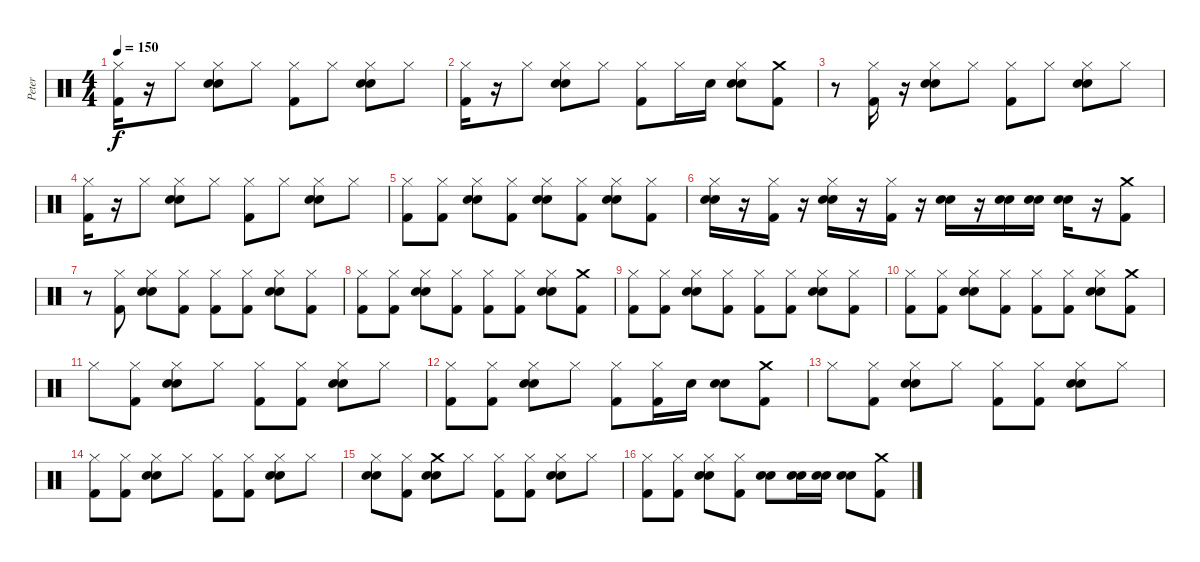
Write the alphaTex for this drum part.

\track ("Peter" "Peter") {instrument percussion}
\staff {score}
\articulation defaults
\ts (4 4)
\tempo 150
\clef neutral
\ks c
("Hi-Hat (closed)" "Kick (hit) 2").16{dy f} r.16 "Hi-Hat (closed)".8 ("Electric Snare (hit)" "Hi-Hat (closed)" "Snare (hit) 2").8 "Hi-Hat (closed)".8 ("Hi-Hat (closed)" "Kick (hit) 2").8 "Hi-Hat (closed)".8 ("Hi-Hat (closed)" "Electric Snare (hit)" "Snare (hit) 2").8 "Hi-Hat (closed)".8 |
("Kick (hit) 2" "Hi-Hat (closed)").16 r.16 "Hi-Hat (closed)".8 ("Electric Snare (hit)" "Hi-Hat (closed)" "Snare (hit) 2").8 "Hi-Hat (closed)".8 ("Hi-Hat (closed)" "Kick (hit) 2").8 "Hi-Hat (closed)".16 "Snare (hit) 2".16 ("Hi-Hat (closed)" "Electric Snare (hit)" "Snare (hit) 2").8 ("Kick (hit) 2" "Crash medium (hit)").8 |
r.8 ("Hi-Hat (closed)" "Kick (hit) 2").16 r.16 ("Hi-Hat (closed)" "Electric Snare (hit)" "Snare (hit) 2").8 "Hi-Hat (closed)".8 ("Hi-Hat (closed)" "Kick (hit) 2").8 "Hi-Hat (closed)".8 ("Hi-Hat (closed)" "Electric Snare (hit)" "Snare (hit) 2").8 "Hi-Hat (closed)".8 |
("Hi-Hat (closed)" "Kick (hit) 2").16 r.16 "Hi-Hat (closed)".8 ("Electric Snare (hit)" "Snare (hit) 2" "Hi-Hat (closed)").8 "Hi-Hat (closed)".8 ("Kick (hit) 2" "Hi-Hat (closed)").8 "Hi-Hat (closed)".8 ("Electric Snare (hit)" "Snare (hit) 2" "Hi-Hat (closed)").8 "Hi-Hat (closed)".8 |
("Hi-Hat (closed)" "Kick (hit) 2").8 ("Hi-Hat (closed)" "Kick (hit) 2").8 ("Hi-Hat (closed)" "Electric Snare (hit)" "Snare (hit) 2").8 ("Hi-Hat (closed)" "Kick (hit) 2").8 ("Hi-Hat (closed)" "Electric Snare (hit)" "Snare (hit) 2").8 ("Hi-Hat (closed)" "Kick (hit) 2").8 ("Hi-Hat (closed)" "Electric Snare (hit)" "Snare (hit) 2").8 ("Hi-Hat (closed)" "Kick (hit) 2").8 |
("Hi-Hat (closed)" "Snare (hit) 2" "Electric Snare (hit)").16 r.16 ("Hi-Hat (closed)" "Kick (hit) 2").16 r.16 ("Hi-Hat (closed)" "Snare (hit) 2" "Electric Snare (hit)").16 r.16 ("Hi-Hat (closed)" "Kick (hit) 2").16 r.16 ("Snare (hit) 2" "Electric Snare (hit)").16 r.16 ("Snare (hit) 2" "Electric Snare (hit)").16 ("Snare (hit) 2" "Electric Snare (hit)").16 ("Snare (hit) 2" "Electric Snare (hit)").16 r.16 ("Crash medium (hit)" "Kick (hit) 2").8 |
r.8 ("Hi-Hat (closed)" "Kick (hit) 2").8 ("Hi-Hat (closed)" "Electric Snare (hit)" "Snare (hit) 2").8 ("Hi-Hat (closed)" "Kick (hit) 2").8 ("Hi-Hat (closed)" "Kick (hit) 2").8 ("Hi-Hat (closed)" "Kick (hit) 2").8 ("Hi-Hat (closed)" "Electric Snare (hit)" "Snare (hit) 2").8 ("Hi-Hat (closed)" "Kick (hit) 2").8 |
("Hi-Hat (closed)" "Kick (hit) 2").8 ("Hi-Hat (closed)" "Kick (hit) 2").8 ("Hi-Hat (closed)" "Electric Snare (hit)" "Snare (hit) 2").8 ("Hi-Hat (closed)" "Kick (hit) 2").8 ("Hi-Hat (closed)" "Kick (hit) 2").8 ("Hi-Hat (closed)" "Kick (hit) 2").8 ("Hi-Hat (closed)" "Snare (hit) 2" "Electric Snare (hit)").8 ("Crash medium (hit)" "Kick (hit) 2").8 |
("Hi-Hat (closed)" "Kick (hit) 2").8 ("Hi-Hat (closed)" "Kick (hit) 2").8 ("Hi-Hat (closed)" "Electric Snare (hit)" "Snare (hit) 2").8 ("Hi-Hat (closed)" "Kick (hit) 2").8 ("Hi-Hat (closed)" "Kick (hit) 2").8 ("Hi-Hat (closed)" "Kick (hit) 2").8 ("Snare (hit) 2" "Hi-Hat (closed)" "Electric Snare (hit)").8 ("Hi-Hat (closed)" "Kick (hit) 2").8 |
("Hi-Hat (closed)" "Kick (hit) 2").8 ("Hi-Hat (closed)" "Kick (hit) 2").8 ("Hi-Hat (closed)" "Electric Snare (hit)" "Snare (hit) 2").8 ("Hi-Hat (closed)" "Kick (hit) 2").8 ("Hi-Hat (closed)" "Kick (hit) 2").8 ("Hi-Hat (closed)" "Kick (hit) 2").8 ("Hi-Hat (closed)" "Electric Snare (hit)" "Snare (hit) 2").8 ("Crash medium (hit)" "Kick (hit) 2").8 |
"Hi-Hat (closed)".8 ("Hi-Hat (closed)" "Kick (hit) 2").8 ("Hi-Hat (closed)" "Snare (hit) 2" "Electric Snare (hit)").8 "Hi-Hat (closed)".8 ("Hi-Hat (closed)" "Kick (hit) 2").8 ("Hi-Hat (closed)" "Kick (hit) 2").8 ("Hi-Hat (closed)" "Snare (hit) 2" "Electric Snare (hit)").8 "Hi-Hat (closed)".8 |
("Hi-Hat (closed)" "Kick (hit) 2").8 ("Hi-Hat (closed)" "Kick (hit) 2").8 ("Hi-Hat (closed)" "Electric Snare (hit)" "Snare (hit) 2").8 "Hi-Hat (closed)".8 ("Hi-Hat (closed)" "Kick (hit) 2").8 ("Hi-Hat (closed)" "Kick (hit) 2").16 "Snare (hit) 2".16 ("Electric Snare (hit)" "Snare (hit) 2").8 ("Crash medium (hit)" "Kick (hit) 2").8 |
"Hi-Hat (closed)".8 ("Hi-Hat (closed)" "Kick (hit) 2").8 ("Hi-Hat (closed)" "Snare (hit) 2" "Electric Snare (hit)").8 "Hi-Hat (closed)".8 ("Hi-Hat (closed)" "Kick (hit) 2").8 ("Hi-Hat (closed)" "Kick (hit) 2").8 ("Hi-Hat (closed)" "Snare (hit) 2" "Electric Snare (hit)").8 "Hi-Hat (closed)".8 |
("Kick (hit) 2" "Hi-Hat (closed)").8 ("Hi-Hat (closed)" "Kick (hit) 2").8 ("Hi-Hat (closed)" "Snare (hit) 2" "Electric Snare (hit)").8 "Hi-Hat (closed)".8 ("Hi-Hat (closed)" "Kick (hit) 2").8 ("Hi-Hat (closed)" "Kick (hit) 2").8 ("Hi-Hat (closed)" "Snare (hit) 2" "Electric Snare (hit)").8 "Hi-Hat (closed)".8 |
("Snare (hit) 2" "Electric Snare (hit)" "Hi-Hat (closed)").8 ("Hi-Hat (closed)" "Kick (hit) 2").8 ("Crash medium (hit)" "Snare (hit) 2" "Electric Snare (hit)").8 "Hi-Hat (closed)".8 ("Hi-Hat (closed)" "Kick (hit) 2").8 ("Hi-Hat (closed)" "Kick (hit) 2").8 ("Hi-Hat (closed)" "Snare (hit) 2" "Electric Snare (hit)").8 "Hi-Hat (closed)".8 |
("Kick (hit) 2" "Hi-Hat (closed)").8 ("Hi-Hat (closed)" "Kick (hit) 2").8 ("Hi-Hat (closed)" "Snare (hit) 2" "Electric Snare (hit)").8 ("Kick (hit) 2" "Hi-Hat (closed)").8 ("Snare (hit) 2" "Electric Snare (hit)").8 ("Electric Snare (hit)" "Snare (hit) 2").16 ("Electric Snare (hit)" "Snare (hit) 2").16 ("Snare (hit) 2" "Electric Snare (hit)").8 ("Kick (hit) 2" "Crash medium (hit)").8
